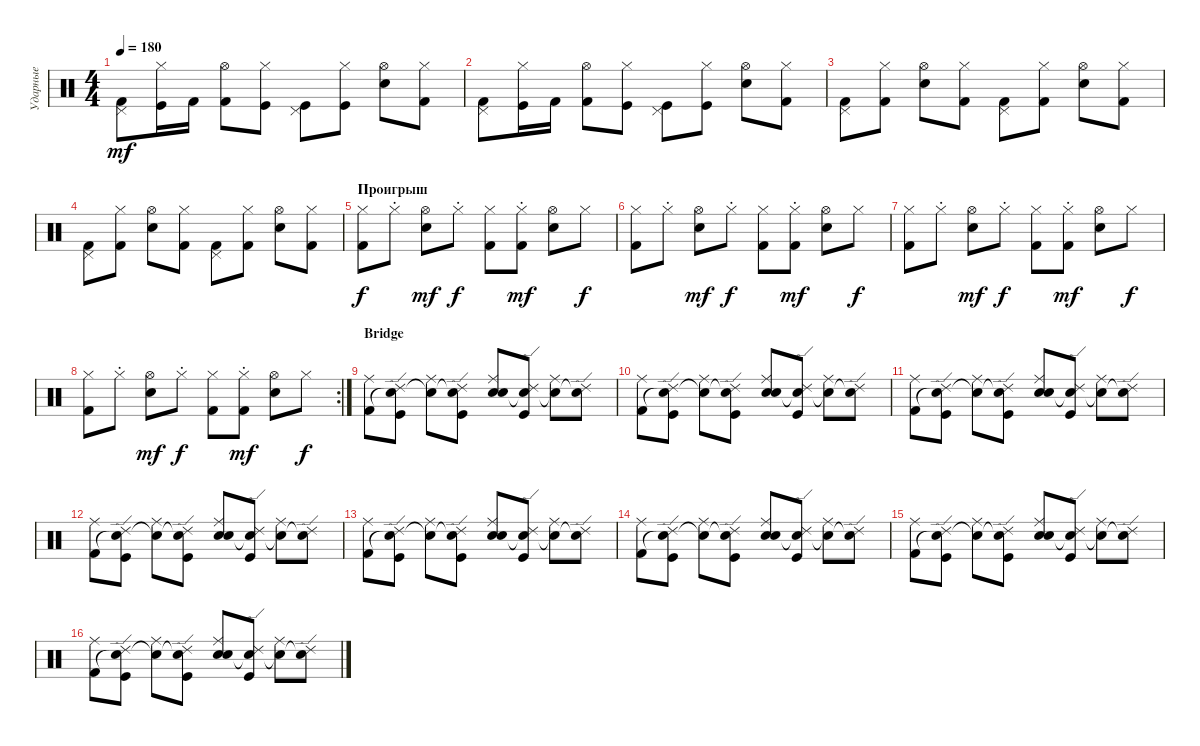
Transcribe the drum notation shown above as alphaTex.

\track ("Ударные" "Ударные") {instrument percussion}
\staff {score}
\articulation defaults
\ts (4 4)
\tempo 180
\clef neutral
\ks c
("Kick (hit) 2" "Pedal Hi-Hat (hit)").8{dy mf} ("Hi-Hat (closed)" "Kick (hit)").16 "Kick (hit) 2".16 ("Kick (hit) 2" "Hi-Hat (open)").8 ("Kick (hit)" "Hi-Hat (closed)").8 ("Pedal Hi-Hat (hit)" "Kick (hit)").8 ("Hi-Hat (closed)" "Kick (hit)").8 ("Hi-Hat (open)" "Snare (hit) 2").8 ("Kick (hit) 2" "Hi-Hat (closed)").8 |
("Kick (hit) 2" "Pedal Hi-Hat (hit)").8 ("Hi-Hat (closed)" "Kick (hit)").16 "Kick (hit) 2".16 ("Kick (hit) 2" "Hi-Hat (open)").8 ("Kick (hit)" "Hi-Hat (closed)").8 ("Pedal Hi-Hat (hit)" "Kick (hit)").8 ("Hi-Hat (closed)" "Kick (hit)").8 ("Hi-Hat (open)" "Snare (hit) 2").8 ("Kick (hit) 2" "Hi-Hat (closed)").8 |
("Kick (hit) 2" "Pedal Hi-Hat (hit)").8 ("Hi-Hat (closed)" "Kick (hit) 2").8 ("Snare (hit) 2" "Hi-Hat (open)").8 ("Kick (hit) 2" "Hi-Hat (closed)").8 ("Kick (hit) 2" "Pedal Hi-Hat (hit)").8 ("Hi-Hat (closed)" "Kick (hit) 2").8 ("Snare (hit) 2" "Hi-Hat (open)").8 ("Hi-Hat (closed)" "Kick (hit) 2").8 |
("Kick (hit) 2" "Pedal Hi-Hat (hit)").8 ("Hi-Hat (closed)" "Kick (hit) 2").8 ("Snare (hit) 2" "Hi-Hat (open)").8 ("Kick (hit) 2" "Hi-Hat (closed)").8 ("Kick (hit) 2" "Pedal Hi-Hat (hit)").8 ("Hi-Hat (closed)" "Kick (hit) 2").8 ("Snare (hit) 2" "Hi-Hat (open)").8 ("Hi-Hat (closed)" "Kick (hit) 2").8 |
\section ("" "Проигрыш")
("Kick (hit) 2" "Hi-Hat (closed)").8{dy f} "Hi-Hat (closed)"{st}.8 ("Snare (hit) 2" "Hi-Hat (open)").8{dy mf} "Hi-Hat (closed)"{st}.8{dy f} ("Kick (hit) 2" "Hi-Hat (closed)").8 ("Kick (hit) 2" "Hi-Hat (closed)"{st}).8{dy mf} ("Snare (hit) 2" "Hi-Hat (open)").8 "Hi-Hat (closed)".8{dy f} |
("Kick (hit) 2" "Hi-Hat (closed)").8 "Hi-Hat (closed)"{st}.8 ("Snare (hit) 2" "Hi-Hat (open)").8{dy mf} "Hi-Hat (closed)"{st}.8{dy f} ("Kick (hit) 2" "Hi-Hat (closed)").8 ("Kick (hit) 2" "Hi-Hat (closed)"{st}).8{dy mf} ("Snare (hit) 2" "Hi-Hat (open)").8 "Hi-Hat (closed)".8{dy f} |
("Kick (hit) 2" "Hi-Hat (closed)").8 "Hi-Hat (closed)"{st}.8 ("Snare (hit) 2" "Hi-Hat (open)").8{dy mf} "Hi-Hat (closed)"{st}.8{dy f} ("Kick (hit) 2" "Hi-Hat (closed)").8 ("Kick (hit) 2" "Hi-Hat (closed)"{st}).8{dy mf} ("Snare (hit) 2" "Hi-Hat (open)").8 "Hi-Hat (closed)".8{dy f} |
\rc 2
("Kick (hit) 2" "Hi-Hat (closed)").8 "Hi-Hat (closed)"{st}.8 ("Snare (hit) 2" "Hi-Hat (open)").8{dy mf} "Hi-Hat (closed)"{st}.8{dy f} ("Kick (hit) 2" "Hi-Hat (closed)").8 ("Kick (hit) 2" "Hi-Hat (closed)"{st}).8{dy mf} ("Snare (hit) 2" "Hi-Hat (open)").8 "Hi-Hat (closed)".8{dy f} |
\section ("" "Bridge")
("Kick (hit) 2" "Ride (middle)").8 ("Snare (hit)"{t} "Kick (hit)" "Ride (edge) 2").8 ("Snare (hit)"{t} "Ride (middle)").8 ("Snare (hit)"{t} "Kick (hit)" "Ride (edge) 2").8 ("Snare (hit) 2" "Electric Snare (hit)" "Ride (middle)").8 ("Snare (hit)"{t} "Kick (hit)" "Ride (edge) 2").8 ("Snare (hit)"{t} "Ride (middle)").8 ("Snare (hit)"{t} "Ride (edge) 2").8 |
("Kick (hit) 2" "Ride (middle)").8 ("Snare (hit)"{t} "Kick (hit)" "Ride (edge) 2").8 ("Snare (hit)"{t} "Ride (middle)").8 ("Snare (hit)"{t} "Kick (hit)" "Ride (edge) 2").8 ("Snare (hit) 2" "Electric Snare (hit)" "Ride (middle)").8 ("Snare (hit)"{t} "Kick (hit)" "Ride (edge) 2").8 ("Snare (hit)"{t} "Ride (middle)").8 ("Snare (hit)"{t} "Ride (edge) 2").8 |
("Kick (hit) 2" "Ride (middle)").8 ("Snare (hit)"{t} "Kick (hit)" "Ride (edge) 2").8 ("Snare (hit)"{t} "Ride (middle)").8 ("Snare (hit)"{t} "Kick (hit)" "Ride (edge) 2").8 ("Snare (hit) 2" "Electric Snare (hit)" "Ride (middle)").8 ("Snare (hit)"{t} "Kick (hit)" "Ride (edge) 2").8 ("Snare (hit)"{t} "Ride (middle)").8 ("Snare (hit)"{t} "Ride (edge) 2").8 |
("Kick (hit) 2" "Ride (middle)").8 ("Snare (hit)"{t} "Kick (hit)" "Ride (edge) 2").8 ("Snare (hit)"{t} "Ride (middle)").8 ("Snare (hit)"{t} "Kick (hit)" "Ride (edge) 2").8 ("Snare (hit) 2" "Electric Snare (hit)" "Ride (middle)").8 ("Snare (hit)"{t} "Kick (hit)" "Ride (edge) 2").8 ("Snare (hit)"{t} "Ride (middle)").8 ("Snare (hit)"{t} "Ride (edge) 2").8 |
("Kick (hit) 2" "Ride (middle)").8 ("Snare (hit)"{t} "Kick (hit)" "Ride (edge) 2").8 ("Snare (hit)"{t} "Ride (middle)").8 ("Snare (hit)"{t} "Kick (hit)" "Ride (edge) 2").8 ("Snare (hit) 2" "Electric Snare (hit)" "Ride (middle)").8 ("Snare (hit)"{t} "Kick (hit)" "Ride (edge) 2").8 ("Snare (hit)"{t} "Ride (middle)").8 ("Snare (hit)"{t} "Ride (edge) 2").8 |
("Kick (hit) 2" "Ride (middle)").8 ("Snare (hit)"{t} "Kick (hit)" "Ride (edge) 2").8 ("Snare (hit)"{t} "Ride (middle)").8 ("Snare (hit)"{t} "Kick (hit)" "Ride (edge) 2").8 ("Snare (hit) 2" "Electric Snare (hit)" "Ride (middle)").8 ("Snare (hit)"{t} "Kick (hit)" "Ride (edge) 2").8 ("Snare (hit)"{t} "Ride (middle)").8 ("Snare (hit)"{t} "Ride (edge) 2").8 |
("Kick (hit) 2" "Ride (middle)").8 ("Snare (hit)"{t} "Kick (hit)" "Ride (edge) 2").8 ("Snare (hit)"{t} "Ride (middle)").8 ("Snare (hit)"{t} "Kick (hit)" "Ride (edge) 2").8 ("Snare (hit) 2" "Electric Snare (hit)" "Ride (middle)").8 ("Snare (hit)"{t} "Kick (hit)" "Ride (edge) 2").8 ("Snare (hit)"{t} "Ride (middle)").8 ("Snare (hit)"{t} "Ride (edge) 2").8 |
("Kick (hit) 2" "Ride (middle)").8 ("Snare (hit)"{t} "Kick (hit)" "Ride (edge) 2").8 ("Snare (hit)"{t} "Ride (middle)").8 ("Snare (hit)"{t} "Kick (hit)" "Ride (edge) 2").8 ("Snare (hit) 2" "Electric Snare (hit)" "Ride (middle)").8 ("Snare (hit)"{t} "Kick (hit)" "Ride (edge) 2").8 ("Snare (hit)"{t} "Ride (middle)").8 ("Snare (hit)"{t} "Ride (edge) 2").8
